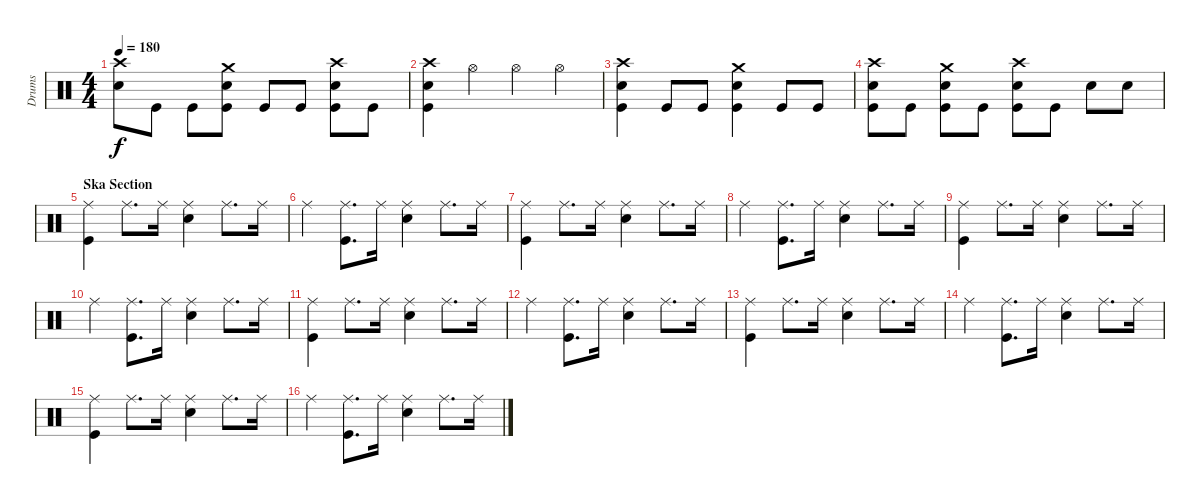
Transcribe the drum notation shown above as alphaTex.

\track ("Drums" "Drums") {instrument percussion}
\staff {score}
\articulation defaults
\ts (4 4)
\tempo 180
\clef neutral
\ks c
("Crash high (hit)" "Snare (hit) 2").8{dy f} "Kick (hit)".8 "Kick (hit)".8 ("Crash medium (hit)" "Snare (hit) 2" "Kick (hit)").8 "Kick (hit)".8 "Kick (hit)".8 ("Crash high (hit)" "Snare (hit) 2" "Kick (hit)").8 "Kick (hit)".8 |
("Crash high (hit)" "Snare (hit) 2" "Kick (hit)").4 "Hi-Hat (open)".4 "Hi-Hat (open)".4 "Hi-Hat (open)".4 |
("Crash high (hit)" "Snare (hit) 2" "Kick (hit)").4 "Kick (hit)".8 "Kick (hit)".8 ("Crash medium (hit)" "Snare (hit) 2" "Kick (hit)").4 "Kick (hit)".8 "Kick (hit)".8 |
("Crash high (hit)" "Snare (hit) 2" "Kick (hit)").8 "Kick (hit)".8 ("Crash medium (hit)" "Snare (hit) 2" "Kick (hit)").8 "Kick (hit)".8 ("Crash high (hit)" "Snare (hit) 2" "Kick (hit)").8 "Kick (hit)".8 "Snare (hit) 2".8 "Snare (hit) 2".8 |
\section ("" "Ska Section")
("Ride (middle)" "Kick (hit)").4 "Ride (middle)".8{d} "Ride (middle)".16 ("Ride (middle)" "Snare (hit) 2").4 "Ride (middle)".8{d} "Ride (middle)".16 |
"Ride (middle)".4 ("Ride (middle)" "Kick (hit)").8{d} "Ride (middle)".16 ("Ride (middle)" "Snare (hit) 2").4 "Ride (middle)".8{d} "Ride (middle)".16 |
("Ride (middle)" "Kick (hit)").4 "Ride (middle)".8{d} "Ride (middle)".16 ("Ride (middle)" "Snare (hit) 2").4 "Ride (middle)".8{d} "Ride (middle)".16 |
"Ride (middle)".4 ("Ride (middle)" "Kick (hit)").8{d} "Ride (middle)".16 ("Ride (middle)" "Snare (hit) 2").4 "Ride (middle)".8{d} "Ride (middle)".16 |
("Ride (middle)" "Kick (hit)").4 "Ride (middle)".8{d} "Ride (middle)".16 ("Ride (middle)" "Snare (hit) 2").4 "Ride (middle)".8{d} "Ride (middle)".16 |
"Ride (middle)".4 ("Ride (middle)" "Kick (hit)").8{d} "Ride (middle)".16 ("Ride (middle)" "Snare (hit) 2").4 "Ride (middle)".8{d} "Ride (middle)".16 |
("Ride (middle)" "Kick (hit)").4 "Ride (middle)".8{d} "Ride (middle)".16 ("Ride (middle)" "Snare (hit) 2").4 "Ride (middle)".8{d} "Ride (middle)".16 |
"Ride (middle)".4 ("Ride (middle)" "Kick (hit)").8{d} "Ride (middle)".16 ("Ride (middle)" "Snare (hit) 2").4 "Ride (middle)".8{d} "Ride (middle)".16 |
("Ride (middle)" "Kick (hit)").4 "Ride (middle)".8{d} "Ride (middle)".16 ("Ride (middle)" "Snare (hit) 2").4 "Ride (middle)".8{d} "Ride (middle)".16 |
"Ride (middle)".4 ("Ride (middle)" "Kick (hit)").8{d} "Ride (middle)".16 ("Ride (middle)" "Snare (hit) 2").4 "Ride (middle)".8{d} "Ride (middle)".16 |
("Ride (middle)" "Kick (hit)").4 "Ride (middle)".8{d} "Ride (middle)".16 ("Ride (middle)" "Snare (hit) 2").4 "Ride (middle)".8{d} "Ride (middle)".16 |
"Ride (middle)".4 ("Ride (middle)" "Kick (hit)").8{d} "Ride (middle)".16 ("Ride (middle)" "Snare (hit) 2").4 "Ride (middle)".8{d} "Ride (middle)".16
